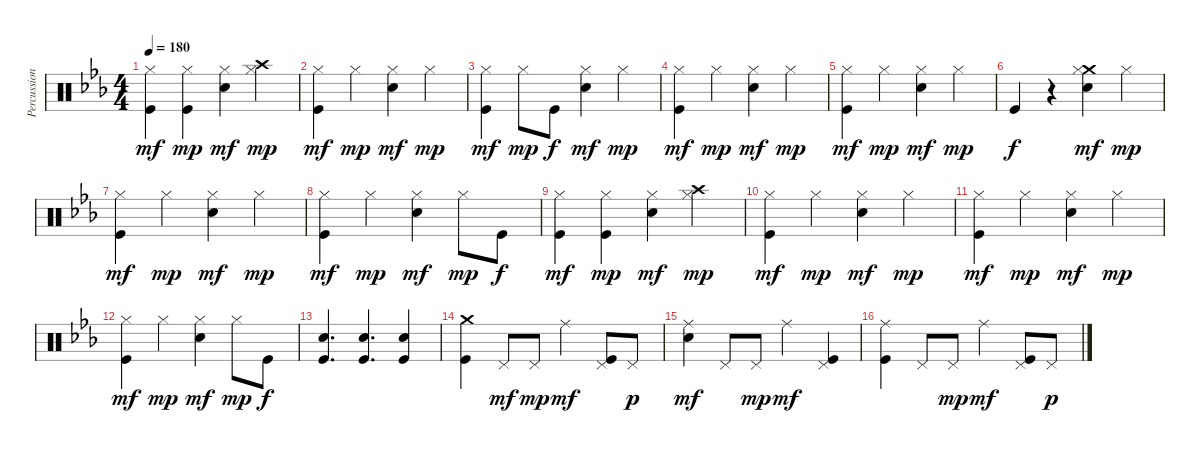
\track ("Percussion" "Percussion") {instrument percussion}
\staff {score}
\articulation defaults
\ts (4 4)
\tempo 180
\clef neutral
\ks cminor
("Hi-Hat (closed)" "Kick (hit)").4{dy mf} ("Hi-Hat (closed)" "Kick (hit)").4{dy mp} ("Hi-Hat (closed)" "Snare (hit) 2").4{dy mf} ("Crash high (hit)" "Hi-Hat (closed)").4{dy mp} |
("Hi-Hat (closed)" "Kick (hit)").4{dy mf} "Hi-Hat (closed)".4{dy mp} ("Hi-Hat (closed)" "Snare (hit) 2").4{dy mf} "Hi-Hat (closed)".4{dy mp} |
("Hi-Hat (closed)" "Kick (hit)").4{dy mf} "Hi-Hat (closed)".8{dy mp} "Kick (hit)".8{dy f} ("Hi-Hat (closed)" "Snare (hit) 2").4{dy mf} "Hi-Hat (closed)".4{dy mp} |
("Hi-Hat (closed)" "Kick (hit)").4{dy mf} "Hi-Hat (closed)".4{dy mp} ("Hi-Hat (closed)" "Snare (hit) 2").4{dy mf} "Hi-Hat (closed)".4{dy mp} |
("Hi-Hat (closed)" "Kick (hit)").4{dy mf} "Hi-Hat (closed)".4{dy mp} ("Hi-Hat (closed)" "Snare (hit) 2").4{dy mf} "Hi-Hat (closed)".4{dy mp} |
"Kick (hit)".4{dy f} r.4 ("Crash medium (hit)" "Hi-Hat (closed)" "Snare (hit) 2").4{dy mf} "Hi-Hat (closed)".4{dy mp} |
("Hi-Hat (closed)" "Kick (hit)").4{dy mf} "Hi-Hat (closed)".4{dy mp} ("Hi-Hat (closed)" "Snare (hit) 2").4{dy mf} "Hi-Hat (closed)".4{dy mp} |
("Hi-Hat (closed)" "Kick (hit)").4{dy mf} "Hi-Hat (closed)".4{dy mp} ("Hi-Hat (closed)" "Snare (hit) 2").4{dy mf} "Hi-Hat (closed)".8{dy mp} "Kick (hit)".8{dy f} |
("Hi-Hat (closed)" "Kick (hit)").4{dy mf} ("Hi-Hat (closed)" "Kick (hit)").4{dy mp} ("Hi-Hat (closed)" "Snare (hit) 2").4{dy mf} ("Crash high (hit)" "Hi-Hat (closed)").4{dy mp} |
("Hi-Hat (closed)" "Kick (hit)").4{dy mf} "Hi-Hat (closed)".4{dy mp} ("Hi-Hat (closed)" "Snare (hit) 2").4{dy mf} "Hi-Hat (closed)".4{dy mp} |
("Hi-Hat (closed)" "Kick (hit)").4{dy mf} "Hi-Hat (closed)".4{dy mp} ("Hi-Hat (closed)" "Snare (hit) 2").4{dy mf} "Hi-Hat (closed)".4{dy mp} |
("Hi-Hat (closed)" "Kick (hit)").4{dy mf} "Hi-Hat (closed)".4{dy mp} ("Hi-Hat (closed)" "Snare (hit) 2").4{dy mf} "Hi-Hat (closed)".8{dy mp} "Kick (hit)".8{dy f} |
("Snare (hit) 2" "Kick (hit)").4{d} ("Snare (hit) 2" "Kick (hit)").4{d} ("Snare (hit) 2" "Kick (hit)").4 |
("Crash medium (hit)" "Kick (hit)").4 "Pedal Hi-Hat (hit)".8{dy mf} "Pedal Hi-Hat (hit)".8{dy mp} "Ride (middle)".4{dy mf} ("Pedal Hi-Hat (hit)" "Kick (hit)").8 "Pedal Hi-Hat (hit)".8{dy p} |
("Ride (middle)" "Snare (hit) 2").4{dy mf} "Pedal Hi-Hat (hit)".8 "Pedal Hi-Hat (hit)".8{dy mp} "Ride (middle)".4{dy mf} ("Pedal Hi-Hat (hit)" "Kick (hit)").4 |
("Ride (middle)" "Kick (hit)").4 "Pedal Hi-Hat (hit)".8 "Pedal Hi-Hat (hit)".8{dy mp} "Ride (middle)".4{dy mf} ("Pedal Hi-Hat (hit)" "Kick (hit)").8 "Pedal Hi-Hat (hit)".8{dy p}
